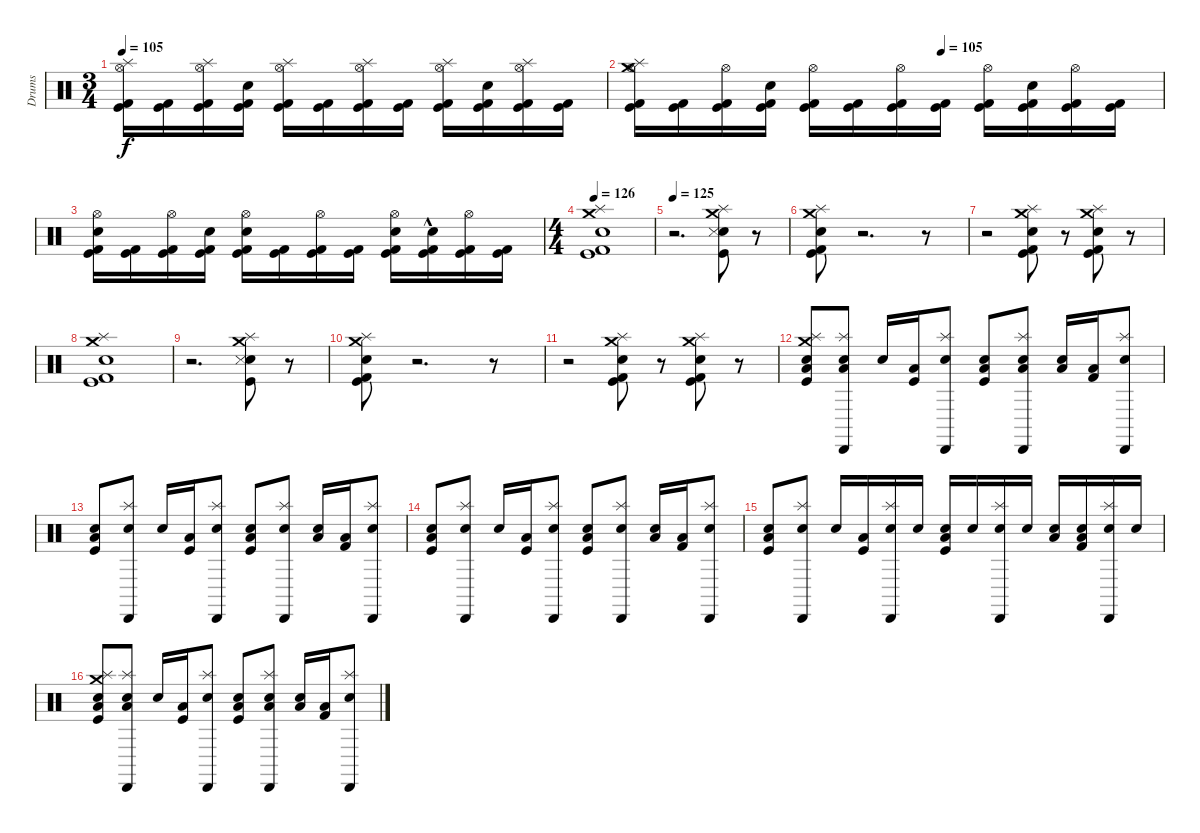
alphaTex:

\track ("Drums" "Drums") {instrument percussion}
\staff {score}
\articulation defaults
\ts (3 4)
\tempo 105
\clef neutral
\ks c
("Splash (hit)" "Hi-Hat (open)" "Kick (hit)" "Kick (hit) 2").16{dy f} ("Kick (hit)" "Kick (hit) 2").16 ("Splash (hit)" "Hi-Hat (open)" "Kick (hit)" "Kick (hit) 2").16 ("Electric Snare (hit)" "Kick (hit)" "Kick (hit) 2").16 ("Splash (hit)" "Hi-Hat (open)" "Kick (hit)" "Kick (hit) 2").16 ("Kick (hit)" "Kick (hit) 2").16 ("Splash (hit)" "Hi-Hat (open)" "Kick (hit)" "Kick (hit) 2").16 ("Kick (hit)" "Kick (hit) 2").16 ("Splash (hit)" "Hi-Hat (open)" "Kick (hit)" "Kick (hit) 2").16 ("Electric Snare (hit)" "Kick (hit)" "Kick (hit) 2").16 ("Splash (hit)" "Hi-Hat (open)" "Kick (hit)" "Kick (hit) 2").16 ("Kick (hit)" "Kick (hit) 2").16 |
\tempo (105 0.5833333333333334)
("Crash medium (hit)" "Splash (hit)" "Hi-Hat (open)" "Kick (hit)" "Kick (hit) 2").16 ("Kick (hit)" "Kick (hit) 2").16 ("Hi-Hat (open)" "Kick (hit)" "Kick (hit) 2").16 ("Electric Snare (hit)" "Kick (hit)" "Kick (hit) 2").16 ("Hi-Hat (open)" "Kick (hit)" "Kick (hit) 2").16 ("Kick (hit)" "Kick (hit) 2").16 ("Hi-Hat (open)" "Kick (hit)" "Kick (hit) 2").16 ("Kick (hit)" "Kick (hit) 2").16 ("Hi-Hat (open)" "Kick (hit)" "Kick (hit) 2").16 ("Electric Snare (hit)" "Kick (hit)" "Kick (hit) 2").16 ("Hi-Hat (open)" "Kick (hit)" "Kick (hit) 2").16 ("Kick (hit)" "Kick (hit) 2").16 |
("Electric Snare (hit)" "Hi-Hat (open)" "Kick (hit)" "Kick (hit) 2").16 ("Kick (hit)" "Kick (hit) 2").16 ("Hi-Hat (open)" "Kick (hit)" "Kick (hit) 2").16 ("Electric Snare (hit)" "Kick (hit)" "Kick (hit) 2").16 ("Electric Snare (hit)" "Hi-Hat (open)" "Kick (hit)" "Kick (hit) 2").16 ("Kick (hit)" "Kick (hit) 2").16 ("Hi-Hat (open)" "Kick (hit)" "Kick (hit) 2").16 ("Kick (hit)" "Kick (hit) 2").16 ("Electric Snare (hit)" "Hi-Hat (open)" "Kick (hit)" "Kick (hit) 2").16 ("Electric Snare (hit)"{hac} "Kick (hit)" "Kick (hit) 2").16 ("Hi-Hat (open)" "Kick (hit)" "Kick (hit) 2").16 ("Kick (hit)" "Kick (hit) 2").16 |
\ts (4 4)
\tempo 126
("Crash medium (hit)" "Splash (hit)" "Electric Snare (hit)" "Kick (hit)" "Kick (hit) 2").1 |
\tempo 125
r.2{d} ("Crash medium (hit)" "Electric Snare (hit)" "Kick (hit)" "Metronome (hit)" "Splash (hit)").8 r.8 |
("Crash medium (hit)" "Splash (hit)" "Kick (hit) 2" "Kick (hit)" "Electric Snare (hit)").8 r.2{d} r.8 |
r.2 ("Crash medium (hit)" "Kick (hit) 2" "Kick (hit)" "Electric Snare (hit)" "Splash (hit)").8 r.8 ("Electric Snare (hit)" "Crash medium (hit)" "Splash (hit)" "Kick (hit)" "Kick (hit) 2").8 r.8 |
("Crash medium (hit)" "Splash (hit)" "Electric Snare (hit)" "Kick (hit)" "Kick (hit) 2").1 |
r.2{d} ("Crash medium (hit)" "Electric Snare (hit)" "Kick (hit)" "Metronome (hit)" "Splash (hit)").8 r.8 |
("Crash medium (hit)" "Splash (hit)" "Kick (hit) 2" "Kick (hit)" "Electric Snare (hit)").8 r.2{d} r.8 |
r.2 ("Crash medium (hit)" "Kick (hit) 2" "Kick (hit)" "Electric Snare (hit)" "Splash (hit)").8 r.8 ("Electric Snare (hit)" "Crash medium (hit)" "Splash (hit)" "Kick (hit)" "Kick (hit) 2").8 r.8 |
("Crash medium (hit)" "Splash (hit)" "Kick (hit)" "Low Tom (hit)" "Electric Snare (hit)").8 ("Low Tom (hit)" "Cabasa (hit)" "Splash (hit)" "Electric Snare (hit)").8 "Electric Snare (hit)".16 ("Kick (hit)" "Low Tom (hit)").16 ("Cabasa (hit)" "Splash (hit)" "Electric Snare (hit)").8 ("Kick (hit)" "Low Tom (hit)" "Electric Snare (hit)").8 ("Low Tom (hit)" "Cabasa (hit)" "Splash (hit)" "Electric Snare (hit)").8 ("Low Tom (hit)" "Electric Snare (hit)").16 ("Kick (hit) 2" "Low Tom (hit)").16 ("Cabasa (hit)" "Splash (hit)" "Electric Snare (hit)").8 |
("Kick (hit)" "Low Tom (hit)" "Electric Snare (hit)").8 ("Cabasa (hit)" "Splash (hit)" "Electric Snare (hit)").8 "Electric Snare (hit)".16 ("Kick (hit)" "Low Tom (hit)").16 ("Cabasa (hit)" "Splash (hit)" "Electric Snare (hit)").8 ("Kick (hit)" "Low Tom (hit)" "Electric Snare (hit)").8 ("Cabasa (hit)" "Splash (hit)" "Electric Snare (hit)").8 ("Low Tom (hit)" "Electric Snare (hit)").16 ("Kick (hit) 2" "Low Tom (hit)").16 ("Cabasa (hit)" "Splash (hit)" "Electric Snare (hit)").8 |
("Kick (hit)" "Low Tom (hit)" "Electric Snare (hit)").8 ("Cabasa (hit)" "Splash (hit)" "Electric Snare (hit)").8 "Electric Snare (hit)".16 ("Kick (hit)" "Low Tom (hit)").16 ("Cabasa (hit)" "Splash (hit)" "Electric Snare (hit)").8 ("Kick (hit)" "Low Tom (hit)" "Electric Snare (hit)").8 ("Cabasa (hit)" "Splash (hit)" "Electric Snare (hit)").8 ("Low Tom (hit)" "Electric Snare (hit)").16 ("Kick (hit) 2" "Low Tom (hit)").16 ("Cabasa (hit)" "Splash (hit)" "Electric Snare (hit)").8 |
("Kick (hit)" "Low Tom (hit)" "Electric Snare (hit)").8 ("Cabasa (hit)" "Splash (hit)" "Electric Snare (hit)").8 "Electric Snare (hit)".16 ("Kick (hit)" "Low Tom (hit)").16 ("Cabasa (hit)" "Splash (hit)" "Electric Snare (hit)").16 "Electric Snare (hit)".16 ("Kick (hit)" "Low Tom (hit)" "Electric Snare (hit)").16 "Electric Snare (hit)".16 ("Cabasa (hit)" "Splash (hit)" "Electric Snare (hit)").16 "Electric Snare (hit)".16 ("Low Tom (hit)" "Electric Snare (hit)").16 ("Electric Snare (hit)" "Kick (hit) 2" "Low Tom (hit)").16 ("Cabasa (hit)" "Splash (hit)" "Electric Snare (hit)").16 "Electric Snare (hit)".16 |
("Crash medium (hit)" "Splash (hit)" "Kick (hit)" "Low Tom (hit)" "Electric Snare (hit)").8 ("Low Tom (hit)" "Cabasa (hit)" "Splash (hit)" "Electric Snare (hit)").8 "Electric Snare (hit)".16 ("Kick (hit)" "Low Tom (hit)").16 ("Cabasa (hit)" "Splash (hit)" "Electric Snare (hit)").8 ("Kick (hit)" "Low Tom (hit)" "Electric Snare (hit)").8 ("Low Tom (hit)" "Cabasa (hit)" "Splash (hit)" "Electric Snare (hit)").8 ("Low Tom (hit)" "Electric Snare (hit)").16 ("Kick (hit) 2" "Low Tom (hit)").16 ("Cabasa (hit)" "Splash (hit)" "Electric Snare (hit)").8
